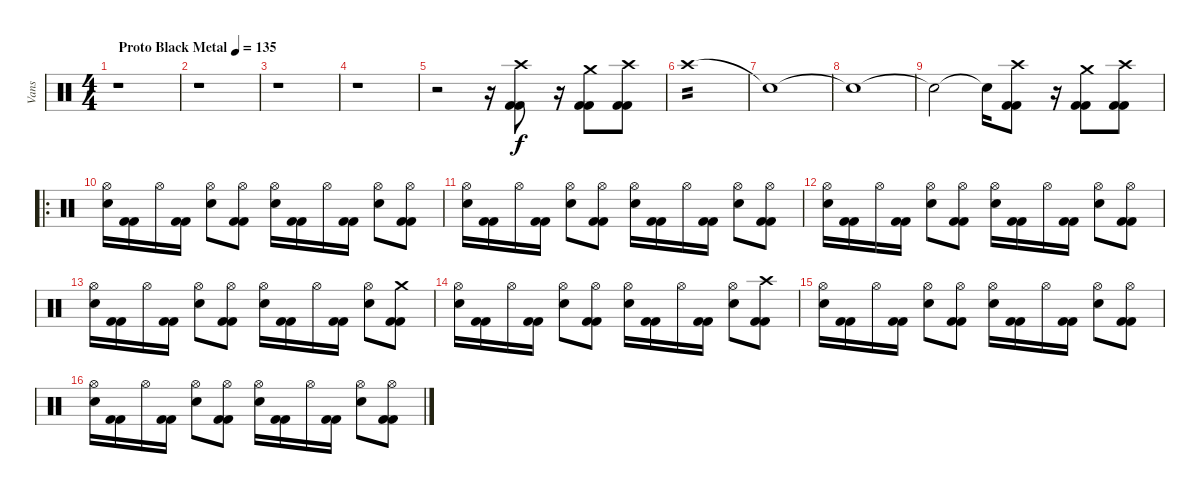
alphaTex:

\track ("Vans" "Vans") {instrument percussion}
\staff {score}
\articulation defaults
\ts (4 4)
\tempo (135 "Proto Black Metal")
\clef neutral
\ks c
r.1{dy f} |
r.1 |
r.1 |
r.1 |
r.2 r.16 ("Kick (hit) 2" "Kick (hit) 2" "Crash high (hit)").8 r.16 ("Kick (hit) 2" "Kick (hit) 2" "Crash medium (hit)").8 ("Kick (hit) 2" "Kick (hit) 2" "Crash high (hit)").8 |
"Crash high (hit)".1{tp 2} |
"Snare (hit)"{t}.1 |
"Snare (hit)"{t}.1 |
"Snare (hit)"{t}.2 "Snare (hit)"{t}.16 ("Kick (hit) 2" "Kick (hit) 2" "Crash high (hit)").8 r.16 ("Kick (hit) 2" "Kick (hit) 2" "Crash medium (hit)").8 ("Kick (hit) 2" "Kick (hit) 2" "Crash high (hit)").8 |
\ro
("Hi-Hat (open)" "Electric Snare (hit)").16 ("Kick (hit) 2" "Kick (hit) 2").16 "Hi-Hat (open)".16 ("Kick (hit) 2" "Kick (hit) 2").16 ("Hi-Hat (open)" "Electric Snare (hit)").8 ("Hi-Hat (open)" "Kick (hit) 2" "Kick (hit) 2").8 ("Hi-Hat (open)" "Electric Snare (hit)").16 ("Kick (hit) 2" "Kick (hit) 2").16 "Hi-Hat (open)".16 ("Kick (hit) 2" "Kick (hit) 2").16 ("Hi-Hat (open)" "Electric Snare (hit)").8 ("Hi-Hat (open)" "Kick (hit) 2" "Kick (hit) 2").8 |
("Hi-Hat (open)" "Electric Snare (hit)").16 ("Kick (hit) 2" "Kick (hit) 2").16 "Hi-Hat (open)".16 ("Kick (hit) 2" "Kick (hit) 2").16 ("Hi-Hat (open)" "Electric Snare (hit)").8 ("Hi-Hat (open)" "Kick (hit) 2" "Kick (hit) 2").8 ("Hi-Hat (open)" "Electric Snare (hit)").16 ("Kick (hit) 2" "Kick (hit) 2").16 "Hi-Hat (open)".16 ("Kick (hit) 2" "Kick (hit) 2").16 ("Hi-Hat (open)" "Electric Snare (hit)").8 ("Hi-Hat (open)" "Kick (hit) 2" "Kick (hit) 2").8 |
("Hi-Hat (open)" "Electric Snare (hit)").16 ("Kick (hit) 2" "Kick (hit) 2").16 "Hi-Hat (open)".16 ("Kick (hit) 2" "Kick (hit) 2").16 ("Hi-Hat (open)" "Electric Snare (hit)").8 ("Hi-Hat (open)" "Kick (hit) 2" "Kick (hit) 2").8 ("Hi-Hat (open)" "Electric Snare (hit)").16 ("Kick (hit) 2" "Kick (hit) 2").16 "Hi-Hat (open)".16 ("Kick (hit) 2" "Kick (hit) 2").16 ("Hi-Hat (open)" "Electric Snare (hit)").8 ("Hi-Hat (open)" "Kick (hit) 2" "Kick (hit) 2").8 |
("Hi-Hat (open)" "Electric Snare (hit)").16 ("Kick (hit) 2" "Kick (hit) 2").16 "Hi-Hat (open)".16 ("Kick (hit) 2" "Kick (hit) 2").16 ("Hi-Hat (open)" "Electric Snare (hit)").8 ("Hi-Hat (open)" "Kick (hit) 2" "Kick (hit) 2").8 ("Hi-Hat (open)" "Electric Snare (hit)").16 ("Kick (hit) 2" "Kick (hit) 2").16 "Hi-Hat (open)".16 ("Kick (hit) 2" "Kick (hit) 2").16 ("Hi-Hat (open)" "Electric Snare (hit)").8 ("Crash medium (hit)" "Kick (hit) 2" "Kick (hit) 2").8 |
("Hi-Hat (open)" "Electric Snare (hit)").16 ("Kick (hit) 2" "Kick (hit) 2").16 "Hi-Hat (open)".16 ("Kick (hit) 2" "Kick (hit) 2").16 ("Hi-Hat (open)" "Electric Snare (hit)").8 ("Hi-Hat (open)" "Kick (hit) 2" "Kick (hit) 2").8 ("Hi-Hat (open)" "Electric Snare (hit)").16 ("Kick (hit) 2" "Kick (hit) 2").16 "Hi-Hat (open)".16 ("Kick (hit) 2" "Kick (hit) 2").16 ("Hi-Hat (open)" "Electric Snare (hit)").8 ("Crash high (hit)" "Kick (hit) 2" "Kick (hit) 2").8 |
("Hi-Hat (open)" "Electric Snare (hit)").16 ("Kick (hit) 2" "Kick (hit) 2").16 "Hi-Hat (open)".16 ("Kick (hit) 2" "Kick (hit) 2").16 ("Hi-Hat (open)" "Electric Snare (hit)").8 ("Hi-Hat (open)" "Kick (hit) 2" "Kick (hit) 2").8 ("Hi-Hat (open)" "Electric Snare (hit)").16 ("Kick (hit) 2" "Kick (hit) 2").16 "Hi-Hat (open)".16 ("Kick (hit) 2" "Kick (hit) 2").16 ("Hi-Hat (open)" "Electric Snare (hit)").8 ("Hi-Hat (open)" "Kick (hit) 2" "Kick (hit) 2").8 |
("Hi-Hat (open)" "Electric Snare (hit)").16 ("Kick (hit) 2" "Kick (hit) 2").16 "Hi-Hat (open)".16 ("Kick (hit) 2" "Kick (hit) 2").16 ("Hi-Hat (open)" "Electric Snare (hit)").8 ("Hi-Hat (open)" "Kick (hit) 2" "Kick (hit) 2").8 ("Hi-Hat (open)" "Electric Snare (hit)").16 ("Kick (hit) 2" "Kick (hit) 2").16 "Hi-Hat (open)".16 ("Kick (hit) 2" "Kick (hit) 2").16 ("Hi-Hat (open)" "Electric Snare (hit)").8 ("Hi-Hat (open)" "Kick (hit) 2" "Kick (hit) 2").8
